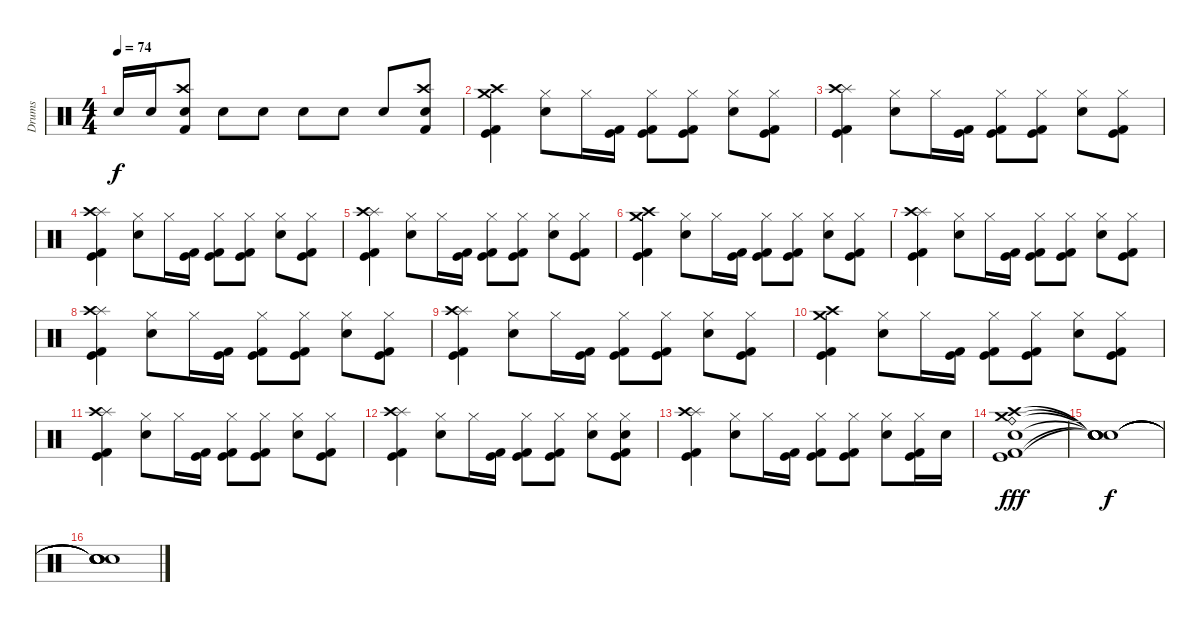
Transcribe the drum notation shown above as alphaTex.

\track ("Drums" "Drums") {instrument percussion}
\staff {score}
\articulation defaults
\ts (4 4)
\tempo 74
\clef neutral
\ks c "Snare (hit) 2".16{dy f} "Snare (hit) 2".16
("Crash high (hit)" "Kick (hit) 2" "Snare (hit) 2").8 "Snare (hit) 2".8 "Snare (hit) 2".8 "Snare (hit) 2".8 "Snare (hit) 2".8 "Snare (hit) 2".8 ("Crash high (hit)" "Kick (hit) 2" "Snare (hit) 2").8 |
("Crash medium (hit)" "Crash high (hit)" "Kick (hit) 2" "Kick (hit)").4 ("Hi-Hat (closed)" "Electric Snare (hit)").8 "Hi-Hat (closed)".16 ("Kick (hit) 2" "Kick (hit)").16 ("Hi-Hat (closed)" "Kick (hit) 2" "Kick (hit)").8 ("Hi-Hat (closed)" "Kick (hit)" "Kick (hit) 2").8 ("Hi-Hat (closed)" "Electric Snare (hit)").8 ("Hi-Hat (closed)" "Kick (hit) 2" "Kick (hit)").8 |
("Splash (hit)" "Crash high (hit)" "Kick (hit) 2" "Kick (hit)").4 ("Hi-Hat (closed)" "Electric Snare (hit)").8 "Hi-Hat (closed)".16 ("Kick (hit) 2" "Kick (hit)").16 ("Hi-Hat (closed)" "Kick (hit) 2" "Kick (hit)").8 ("Hi-Hat (closed)" "Kick (hit)" "Kick (hit) 2").8 ("Hi-Hat (closed)" "Electric Snare (hit)").8 ("Hi-Hat (closed)" "Kick (hit) 2" "Kick (hit)").8 |
("Splash (hit)" "Crash high (hit)" "Kick (hit) 2" "Kick (hit)").4 ("Hi-Hat (closed)" "Electric Snare (hit)").8 "Hi-Hat (closed)".16 ("Kick (hit) 2" "Kick (hit)").16 ("Hi-Hat (closed)" "Kick (hit) 2" "Kick (hit)").8 ("Hi-Hat (closed)" "Kick (hit)" "Kick (hit) 2").8 ("Hi-Hat (closed)" "Electric Snare (hit)").8 ("Hi-Hat (closed)" "Kick (hit) 2" "Kick (hit)").8 |
("Splash (hit)" "Crash high (hit)" "Kick (hit) 2" "Kick (hit)").4 ("Hi-Hat (closed)" "Electric Snare (hit)").8 "Hi-Hat (closed)".16 ("Kick (hit) 2" "Kick (hit)").16 ("Hi-Hat (closed)" "Kick (hit) 2" "Kick (hit)").8 ("Hi-Hat (closed)" "Kick (hit)" "Kick (hit) 2").8 ("Hi-Hat (closed)" "Electric Snare (hit)").8 ("Hi-Hat (closed)" "Kick (hit) 2" "Kick (hit)").8 |
("Crash medium (hit)" "Crash high (hit)" "Kick (hit) 2" "Kick (hit)").4 ("Hi-Hat (closed)" "Electric Snare (hit)").8 "Hi-Hat (closed)".16 ("Kick (hit) 2" "Kick (hit)").16 ("Hi-Hat (closed)" "Kick (hit) 2" "Kick (hit)").8 ("Hi-Hat (closed)" "Kick (hit)" "Kick (hit) 2").8 ("Hi-Hat (closed)" "Electric Snare (hit)").8 ("Hi-Hat (closed)" "Kick (hit) 2" "Kick (hit)").8 |
("Splash (hit)" "Crash high (hit)" "Kick (hit) 2" "Kick (hit)").4 ("Hi-Hat (closed)" "Electric Snare (hit)").8 "Hi-Hat (closed)".16 ("Kick (hit) 2" "Kick (hit)").16 ("Hi-Hat (closed)" "Kick (hit) 2" "Kick (hit)").8 ("Hi-Hat (closed)" "Kick (hit)" "Kick (hit) 2").8 ("Hi-Hat (closed)" "Electric Snare (hit)").8 ("Hi-Hat (closed)" "Kick (hit) 2" "Kick (hit)").8 |
("Splash (hit)" "Crash high (hit)" "Kick (hit) 2" "Kick (hit)").4 ("Hi-Hat (closed)" "Electric Snare (hit)").8 "Hi-Hat (closed)".16 ("Kick (hit) 2" "Kick (hit)").16 ("Hi-Hat (closed)" "Kick (hit) 2" "Kick (hit)").8 ("Hi-Hat (closed)" "Kick (hit)" "Kick (hit) 2").8 ("Hi-Hat (closed)" "Electric Snare (hit)").8 ("Hi-Hat (closed)" "Kick (hit) 2" "Kick (hit)").8 |
("Splash (hit)" "Crash high (hit)" "Kick (hit) 2" "Kick (hit)").4 ("Hi-Hat (closed)" "Electric Snare (hit)").8 "Hi-Hat (closed)".16 ("Kick (hit) 2" "Kick (hit)").16 ("Hi-Hat (closed)" "Kick (hit) 2" "Kick (hit)").8 ("Hi-Hat (closed)" "Kick (hit)" "Kick (hit) 2").8 ("Hi-Hat (closed)" "Electric Snare (hit)").8 ("Hi-Hat (closed)" "Kick (hit) 2" "Kick (hit)").8 |
("Crash medium (hit)" "Crash high (hit)" "Kick (hit) 2" "Kick (hit)").4 ("Hi-Hat (closed)" "Electric Snare (hit)").8 "Hi-Hat (closed)".16 ("Kick (hit) 2" "Kick (hit)").16 ("Hi-Hat (closed)" "Kick (hit) 2" "Kick (hit)").8 ("Hi-Hat (closed)" "Kick (hit)" "Kick (hit) 2").8 ("Hi-Hat (closed)" "Electric Snare (hit)").8 ("Hi-Hat (closed)" "Kick (hit) 2" "Kick (hit)").8 |
("Splash (hit)" "Crash high (hit)" "Kick (hit) 2" "Kick (hit)").4 ("Hi-Hat (closed)" "Electric Snare (hit)").8 "Hi-Hat (closed)".16 ("Kick (hit) 2" "Kick (hit)").16 ("Hi-Hat (closed)" "Kick (hit) 2" "Kick (hit)").8 ("Hi-Hat (closed)" "Kick (hit)" "Kick (hit) 2").8 ("Hi-Hat (closed)" "Electric Snare (hit)").8 ("Hi-Hat (closed)" "Kick (hit) 2" "Kick (hit)").8 |
("Splash (hit)" "Crash high (hit)" "Kick (hit) 2" "Kick (hit)").4 ("Hi-Hat (closed)" "Electric Snare (hit)").8 "Hi-Hat (closed)".16 ("Kick (hit) 2" "Kick (hit)").16 ("Hi-Hat (closed)" "Kick (hit) 2" "Kick (hit)").8 ("Hi-Hat (closed)" "Kick (hit)" "Kick (hit) 2").8 ("Hi-Hat (closed)" "Electric Snare (hit)").8 ("Hi-Hat (closed)" "Electric Snare (hit)" "Kick (hit) 2" "Kick (hit)").8 |
("Splash (hit)" "Crash high (hit)" "Kick (hit) 2" "Kick (hit)").4 ("Hi-Hat (closed)" "Electric Snare (hit)").8 "Hi-Hat (closed)".16 ("Kick (hit) 2" "Kick (hit)").16 ("Hi-Hat (closed)" "Kick (hit) 2" "Kick (hit)").8 ("Hi-Hat (closed)" "Kick (hit)" "Kick (hit) 2").8 ("Hi-Hat (closed)" "Electric Snare (hit)").8 ("Hi-Hat (closed)" "Kick (hit) 2" "Kick (hit)").16 "Electric Snare (hit)".16 |
("Crash high (hit)" "Crash medium (hit)" "Electric Snare (hit)" "Ride (bell)" "Kick (hit) 2" "Kick (hit)").1{dy fff} |
("Snare (hit)"{t} "Snare (hit)"{t} "Snare (hit)"{t} "Snare (hit)"{t} "Snare (hit)"{t} "Snare (hit)"{t}).1{dy f} |
("Snare (hit)"{t} "Snare (hit)"{t} "Snare (hit)"{t} "Snare (hit)"{t} "Snare (hit)"{t} "Snare (hit)"{t}).1
